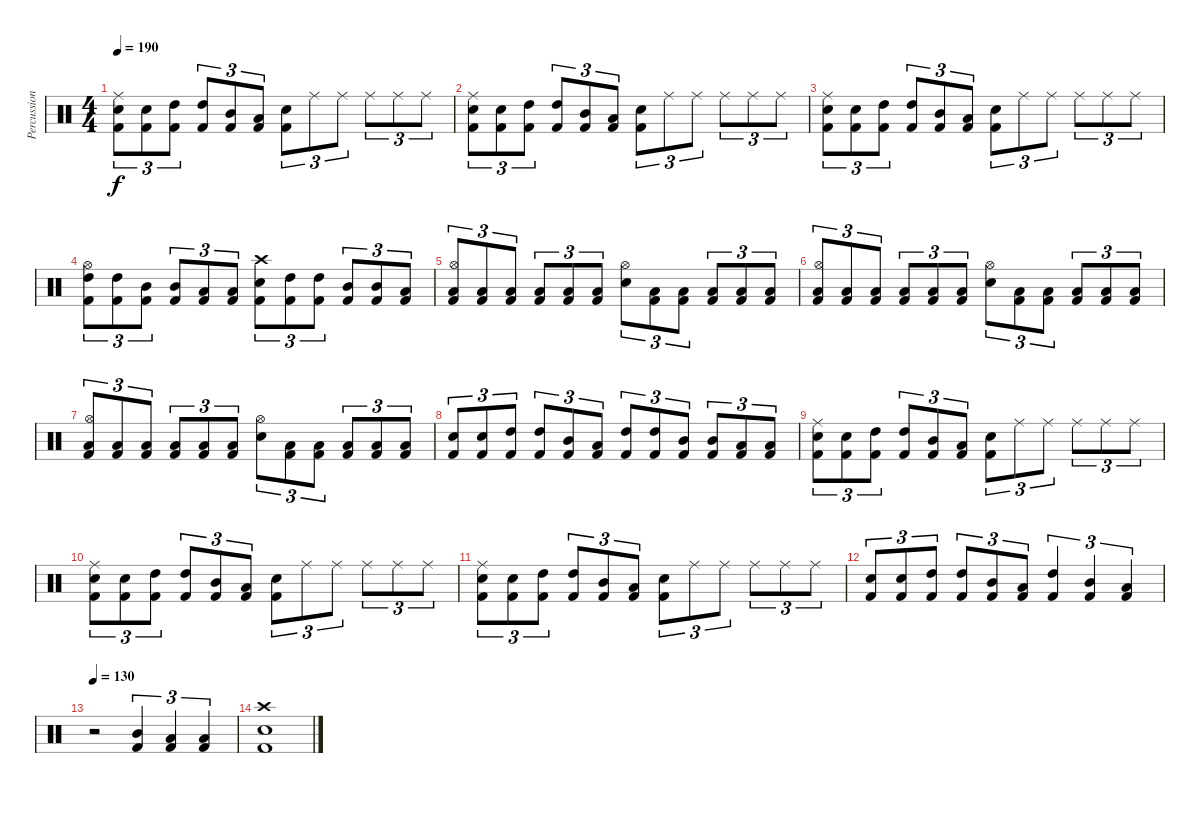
\track ("Percussions" "Percussion") {instrument percussion}
\staff {score}
\articulation defaults
\ts (4 4)
\tempo 190
\clef neutral
\ks c
("Ride (middle)" "Snare (hit) 2" "Kick (hit) 2").8{tu (3 2) dy f} ("Snare (hit) 2" "Kick (hit) 2").8{tu (3 2)} ("High Tom (hit)" "Kick (hit) 2").8{tu (3 2)} ("High Tom (hit)" "Kick (hit) 2").8{tu (3 2)} ("Mid Tom (hit)" "Kick (hit) 2").8{tu (3 2)} ("Low Tom (hit)" "Kick (hit) 2").8{tu (3 2)} ("Snare (hit) 2" "Kick (hit) 2").8{tu (3 2)} "Ride (middle)".8{tu (3 2)} "Ride (middle)".8{tu (3 2)} "Ride (middle)".8{tu (3 2)} "Ride (middle)".8{tu (3 2)} "Ride (middle)".8{tu (3 2)} |
("Ride (middle)" "Snare (hit) 2" "Kick (hit) 2").8{tu (3 2)} ("Snare (hit) 2" "Kick (hit) 2").8{tu (3 2)} ("High Tom (hit)" "Kick (hit) 2").8{tu (3 2)} ("High Tom (hit)" "Kick (hit) 2").8{tu (3 2)} ("Mid Tom (hit)" "Kick (hit) 2").8{tu (3 2)} ("Low Tom (hit)" "Kick (hit) 2").8{tu (3 2)} ("Snare (hit) 2" "Kick (hit) 2").8{tu (3 2)} "Ride (middle)".8{tu (3 2)} "Ride (middle)".8{tu (3 2)} "Ride (middle)".8{tu (3 2)} "Ride (middle)".8{tu (3 2)} "Ride (middle)".8{tu (3 2)} |
("Ride (middle)" "Snare (hit) 2" "Kick (hit) 2").8{tu (3 2)} ("Snare (hit) 2" "Kick (hit) 2").8{tu (3 2)} ("High Tom (hit)" "Kick (hit) 2").8{tu (3 2)} ("High Tom (hit)" "Kick (hit) 2").8{tu (3 2)} ("Mid Tom (hit)" "Kick (hit) 2").8{tu (3 2)} ("Low Tom (hit)" "Kick (hit) 2").8{tu (3 2)} ("Snare (hit) 2" "Kick (hit) 2").8{tu (3 2)} "Ride (middle)".8{tu (3 2)} "Ride (middle)".8{tu (3 2)} "Ride (middle)".8{tu (3 2)} "Ride (middle)".8{tu (3 2)} "Ride (middle)".8{tu (3 2)} |
("Hi-Hat (open)" "High Tom (hit)" "Kick (hit) 2").8{tu (3 2)} ("High Tom (hit)" "Kick (hit) 2").8{tu (3 2)} ("Mid Tom (hit)" "Kick (hit) 2").8{tu (3 2)} ("Mid Tom (hit)" "Kick (hit) 2").8{tu (3 2)} ("Low Tom (hit)" "Kick (hit) 2").8{tu (3 2)} ("Low Tom (hit)" "Kick (hit) 2").8{tu (3 2)} ("Crash high (hit)" "Snare (hit) 2" "Kick (hit) 2").8{tu (3 2)} ("High Tom (hit)" "Kick (hit) 2").8{tu (3 2)} ("High Tom (hit)" "Kick (hit) 2").8{tu (3 2)} ("Mid Tom (hit)" "Kick (hit) 2").8{tu (3 2)} ("Mid Tom (hit)" "Kick (hit) 2").8{tu (3 2)} ("Low Tom (hit)" "Kick (hit) 2").8{tu (3 2)} |
("Hi-Hat (open)" "Low Floor Tom (hit)" "Kick (hit) 2").8{tu (3 2)} ("Low Floor Tom (hit)" "Kick (hit) 2").8{tu (3 2)} ("Low Floor Tom (hit)" "Kick (hit) 2").8{tu (3 2)} ("Low Floor Tom (hit)" "Kick (hit) 2").8{tu (3 2)} ("Low Floor Tom (hit)" "Kick (hit) 2").8{tu (3 2)} ("Low Floor Tom (hit)" "Kick (hit) 2").8{tu (3 2)} ("Hi-Hat (open)" "Snare (hit) 2").8{tu (3 2)} ("Low Floor Tom (hit)" "Kick (hit) 2").8{tu (3 2)} ("Low Floor Tom (hit)" "Kick (hit) 2").8{tu (3 2)} ("Low Floor Tom (hit)" "Kick (hit) 2").8{tu (3 2)} ("Low Floor Tom (hit)" "Kick (hit) 2").8{tu (3 2)} ("Low Floor Tom (hit)" "Kick (hit) 2").8{tu (3 2)} |
("Hi-Hat (open)" "Low Floor Tom (hit)" "Kick (hit) 2").8{tu (3 2)} ("Low Floor Tom (hit)" "Kick (hit) 2").8{tu (3 2)} ("Low Floor Tom (hit)" "Kick (hit) 2").8{tu (3 2)} ("Low Floor Tom (hit)" "Kick (hit) 2").8{tu (3 2)} ("Low Floor Tom (hit)" "Kick (hit) 2").8{tu (3 2)} ("Low Floor Tom (hit)" "Kick (hit) 2").8{tu (3 2)} ("Hi-Hat (open)" "Snare (hit) 2").8{tu (3 2)} ("Low Floor Tom (hit)" "Kick (hit) 2").8{tu (3 2)} ("Low Floor Tom (hit)" "Kick (hit) 2").8{tu (3 2)} ("Low Floor Tom (hit)" "Kick (hit) 2").8{tu (3 2)} ("Low Floor Tom (hit)" "Kick (hit) 2").8{tu (3 2)} ("Low Floor Tom (hit)" "Kick (hit) 2").8{tu (3 2)} |
("Hi-Hat (open)" "Low Floor Tom (hit)" "Kick (hit) 2").8{tu (3 2)} ("Low Floor Tom (hit)" "Kick (hit) 2").8{tu (3 2)} ("Low Floor Tom (hit)" "Kick (hit) 2").8{tu (3 2)} ("Low Floor Tom (hit)" "Kick (hit) 2").8{tu (3 2)} ("Low Floor Tom (hit)" "Kick (hit) 2").8{tu (3 2)} ("Low Floor Tom (hit)" "Kick (hit) 2").8{tu (3 2)} ("Hi-Hat (open)" "Snare (hit) 2").8{tu (3 2)} ("Low Floor Tom (hit)" "Kick (hit) 2").8{tu (3 2)} ("Low Floor Tom (hit)" "Kick (hit) 2").8{tu (3 2)} ("Low Floor Tom (hit)" "Kick (hit) 2").8{tu (3 2)} ("Low Floor Tom (hit)" "Kick (hit) 2").8{tu (3 2)} ("Low Floor Tom (hit)" "Kick (hit) 2").8{tu (3 2)} |
("Snare (hit) 2" "Kick (hit) 2").8{tu (3 2)} ("Snare (hit) 2" "Kick (hit) 2").8{tu (3 2)} ("High Tom (hit)" "Kick (hit) 2").8{tu (3 2)} ("High Tom (hit)" "Kick (hit) 2").8{tu (3 2)} ("Mid Tom (hit)" "Kick (hit) 2").8{tu (3 2)} ("Low Tom (hit)" "Kick (hit) 2").8{tu (3 2)} ("High Tom (hit)" "Kick (hit) 2").8{tu (3 2)} ("High Tom (hit)" "Kick (hit) 2").8{tu (3 2)} ("Mid Tom (hit)" "Kick (hit) 2").8{tu (3 2)} ("Mid Tom (hit)" "Kick (hit) 2").8{tu (3 2)} ("Low Tom (hit)" "Kick (hit) 2").8{tu (3 2)} ("Low Tom (hit)" "Kick (hit) 2").8{tu (3 2)} |
("Ride (middle)" "Snare (hit) 2" "Kick (hit) 2").8{tu (3 2)} ("Snare (hit) 2" "Kick (hit) 2").8{tu (3 2)} ("High Tom (hit)" "Kick (hit) 2").8{tu (3 2)} ("High Tom (hit)" "Kick (hit) 2").8{tu (3 2)} ("Mid Tom (hit)" "Kick (hit) 2").8{tu (3 2)} ("Low Tom (hit)" "Kick (hit) 2").8{tu (3 2)} ("Snare (hit) 2" "Kick (hit) 2").8{tu (3 2)} "Ride (middle)".8{tu (3 2)} "Ride (middle)".8{tu (3 2)} "Ride (middle)".8{tu (3 2)} "Ride (middle)".8{tu (3 2)} "Ride (middle)".8{tu (3 2)} |
("Ride (middle)" "Snare (hit) 2" "Kick (hit) 2").8{tu (3 2)} ("Snare (hit) 2" "Kick (hit) 2").8{tu (3 2)} ("High Tom (hit)" "Kick (hit) 2").8{tu (3 2)} ("High Tom (hit)" "Kick (hit) 2").8{tu (3 2)} ("Mid Tom (hit)" "Kick (hit) 2").8{tu (3 2)} ("Low Tom (hit)" "Kick (hit) 2").8{tu (3 2)} ("Snare (hit) 2" "Kick (hit) 2").8{tu (3 2)} "Ride (middle)".8{tu (3 2)} "Ride (middle)".8{tu (3 2)} "Ride (middle)".8{tu (3 2)} "Ride (middle)".8{tu (3 2)} "Ride (middle)".8{tu (3 2)} |
("Ride (middle)" "Snare (hit) 2" "Kick (hit) 2").8{tu (3 2)} ("Snare (hit) 2" "Kick (hit) 2").8{tu (3 2)} ("High Tom (hit)" "Kick (hit) 2").8{tu (3 2)} ("High Tom (hit)" "Kick (hit) 2").8{tu (3 2)} ("Mid Tom (hit)" "Kick (hit) 2").8{tu (3 2)} ("Low Tom (hit)" "Kick (hit) 2").8{tu (3 2)} ("Snare (hit) 2" "Kick (hit) 2").8{tu (3 2)} "Ride (middle)".8{tu (3 2)} "Ride (middle)".8{tu (3 2)} "Ride (middle)".8{tu (3 2)} "Ride (middle)".8{tu (3 2)} "Ride (middle)".8{tu (3 2)} |
("Snare (hit) 2" "Kick (hit) 2").8{tu (3 2)} ("Snare (hit) 2" "Kick (hit) 2").8{tu (3 2)} ("High Tom (hit)" "Kick (hit) 2").8{tu (3 2)} ("High Tom (hit)" "Kick (hit) 2").8{tu (3 2)} ("Mid Tom (hit)" "Kick (hit) 2").8{tu (3 2)} ("Low Tom (hit)" "Kick (hit) 2").8{tu (3 2)} ("High Tom (hit)" "Kick (hit) 2").4{tu (3 2)} ("Mid Tom (hit)" "Kick (hit) 2").4{tu (3 2)} ("Low Tom (hit)" "Kick (hit) 2").4{tu (3 2)} |
\tempo 130
r.2 ("Mid Tom (hit)" "Kick (hit) 2").4{tu (3 2)} ("Low Tom (hit)" "Kick (hit) 2").4{tu (3 2)} ("Low Floor Tom (hit)" "Kick (hit) 2").4{tu (3 2)} |
("Crash high (hit)" "Snare (hit) 2" "Kick (hit) 2").1
